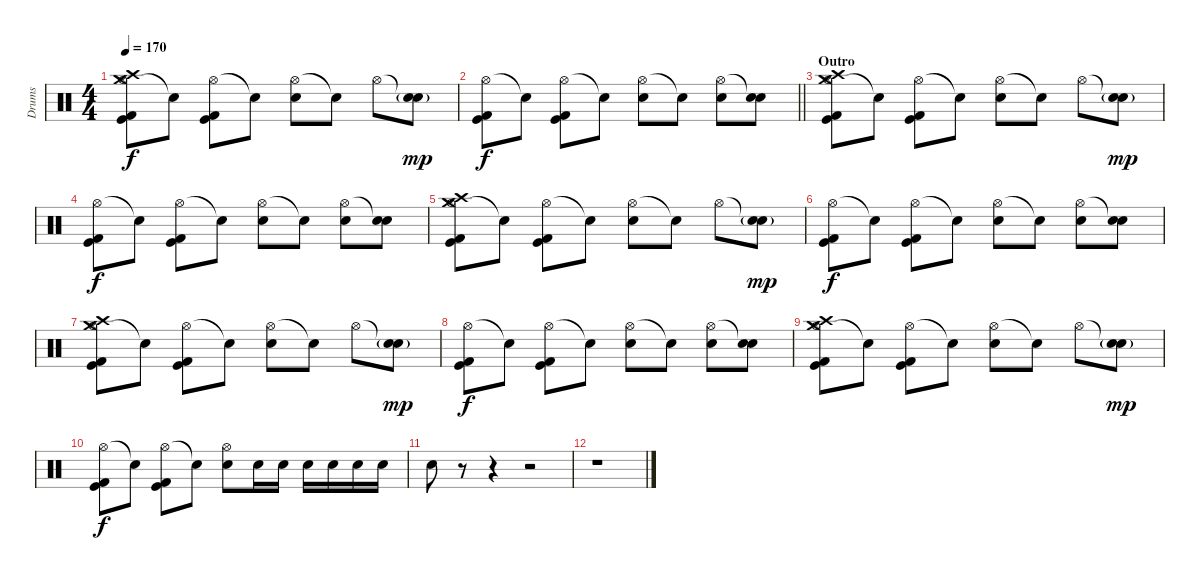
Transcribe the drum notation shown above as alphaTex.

\track ("Drums" "Drums") {instrument percussion}
\staff {score}
\articulation defaults
\ts (4 4)
\tempo 170
\clef neutral
\ks c
("Hi-Hat (open)" "Crash high (hit)" "Crash medium (hit)" "Kick (hit)" "Kick (hit) 2").8{dy f} "Snare (hit)"{t}.8 ("Hi-Hat (open)" "Kick (hit)" "Kick (hit) 2").8 "Snare (hit)"{t}.8 ("Hi-Hat (open)" "Electric Snare (hit)").8 "Snare (hit)"{t}.8 "Hi-Hat (open)".8 ("Snare (hit)"{t} "Electric Snare (hit)"{g}).8{dy mp} |
\barLineRight lightlight
("Hi-Hat (open)" "Kick (hit)" "Kick (hit) 2").8{dy f} "Snare (hit)"{t}.8 ("Hi-Hat (open)" "Kick (hit)" "Kick (hit) 2").8 "Snare (hit)"{t}.8 ("Hi-Hat (open)" "Electric Snare (hit)").8 "Snare (hit)"{t}.8 ("Hi-Hat (open)" "Electric Snare (hit)").8 ("Snare (hit)"{t} "Electric Snare (hit)").8 |
\section ("" "Outro")
("Hi-Hat (open)" "Crash high (hit)" "Crash medium (hit)" "Kick (hit)" "Kick (hit) 2").8 "Snare (hit)"{t}.8 ("Hi-Hat (open)" "Kick (hit)" "Kick (hit) 2").8 "Snare (hit)"{t}.8 ("Hi-Hat (open)" "Electric Snare (hit)").8 "Snare (hit)"{t}.8 "Hi-Hat (open)".8 ("Snare (hit)"{t} "Electric Snare (hit)"{g}).8{dy mp} |
("Hi-Hat (open)" "Kick (hit)" "Kick (hit) 2").8{dy f} "Snare (hit)"{t}.8 ("Hi-Hat (open)" "Kick (hit)" "Kick (hit) 2").8 "Snare (hit)"{t}.8 ("Hi-Hat (open)" "Electric Snare (hit)").8 "Snare (hit)"{t}.8 ("Hi-Hat (open)" "Electric Snare (hit)").8 ("Snare (hit)"{t} "Electric Snare (hit)").8 |
("Hi-Hat (open)" "Crash high (hit)" "Crash medium (hit)" "Kick (hit)" "Kick (hit) 2").8 "Snare (hit)"{t}.8 ("Hi-Hat (open)" "Kick (hit)" "Kick (hit) 2").8 "Snare (hit)"{t}.8 ("Hi-Hat (open)" "Electric Snare (hit)").8 "Snare (hit)"{t}.8 "Hi-Hat (open)".8 ("Snare (hit)"{t} "Electric Snare (hit)"{g}).8{dy mp} |
("Hi-Hat (open)" "Kick (hit)" "Kick (hit) 2").8{dy f} "Snare (hit)"{t}.8 ("Hi-Hat (open)" "Kick (hit)" "Kick (hit) 2").8 "Snare (hit)"{t}.8 ("Hi-Hat (open)" "Electric Snare (hit)").8 "Snare (hit)"{t}.8 ("Hi-Hat (open)" "Electric Snare (hit)").8 ("Snare (hit)"{t} "Electric Snare (hit)").8 |
("Hi-Hat (open)" "Crash high (hit)" "Crash medium (hit)" "Kick (hit)" "Kick (hit) 2").8 "Snare (hit)"{t}.8 ("Hi-Hat (open)" "Kick (hit)" "Kick (hit) 2").8 "Snare (hit)"{t}.8 ("Hi-Hat (open)" "Electric Snare (hit)").8 "Snare (hit)"{t}.8 "Hi-Hat (open)".8 ("Snare (hit)"{t} "Electric Snare (hit)"{g}).8{dy mp} |
("Hi-Hat (open)" "Kick (hit)" "Kick (hit) 2").8{dy f} "Snare (hit)"{t}.8 ("Hi-Hat (open)" "Kick (hit)" "Kick (hit) 2").8 "Snare (hit)"{t}.8 ("Hi-Hat (open)" "Electric Snare (hit)").8 "Snare (hit)"{t}.8 ("Hi-Hat (open)" "Electric Snare (hit)").8 ("Snare (hit)"{t} "Electric Snare (hit)").8 |
("Hi-Hat (open)" "Crash high (hit)" "Crash medium (hit)" "Kick (hit)" "Kick (hit) 2").8 "Snare (hit)"{t}.8 ("Hi-Hat (open)" "Kick (hit)" "Kick (hit) 2").8 "Snare (hit)"{t}.8 ("Hi-Hat (open)" "Electric Snare (hit)").8 "Snare (hit)"{t}.8 "Hi-Hat (open)".8 ("Snare (hit)"{t} "Electric Snare (hit)"{g}).8{dy mp} |
("Hi-Hat (open)" "Kick (hit)" "Kick (hit) 2").8{dy f} "Snare (hit)"{t}.8 ("Hi-Hat (open)" "Kick (hit)" "Kick (hit) 2").8 "Snare (hit)"{t}.8 ("Hi-Hat (open)" "Electric Snare (hit)").8 "Electric Snare (hit)".16 "Electric Snare (hit)".16 "Electric Snare (hit)".16 "Electric Snare (hit)".16 "Electric Snare (hit)".16 "Electric Snare (hit)".16 |
"Electric Snare (hit)".8 r.8 r.4 r.2 |
r.1
